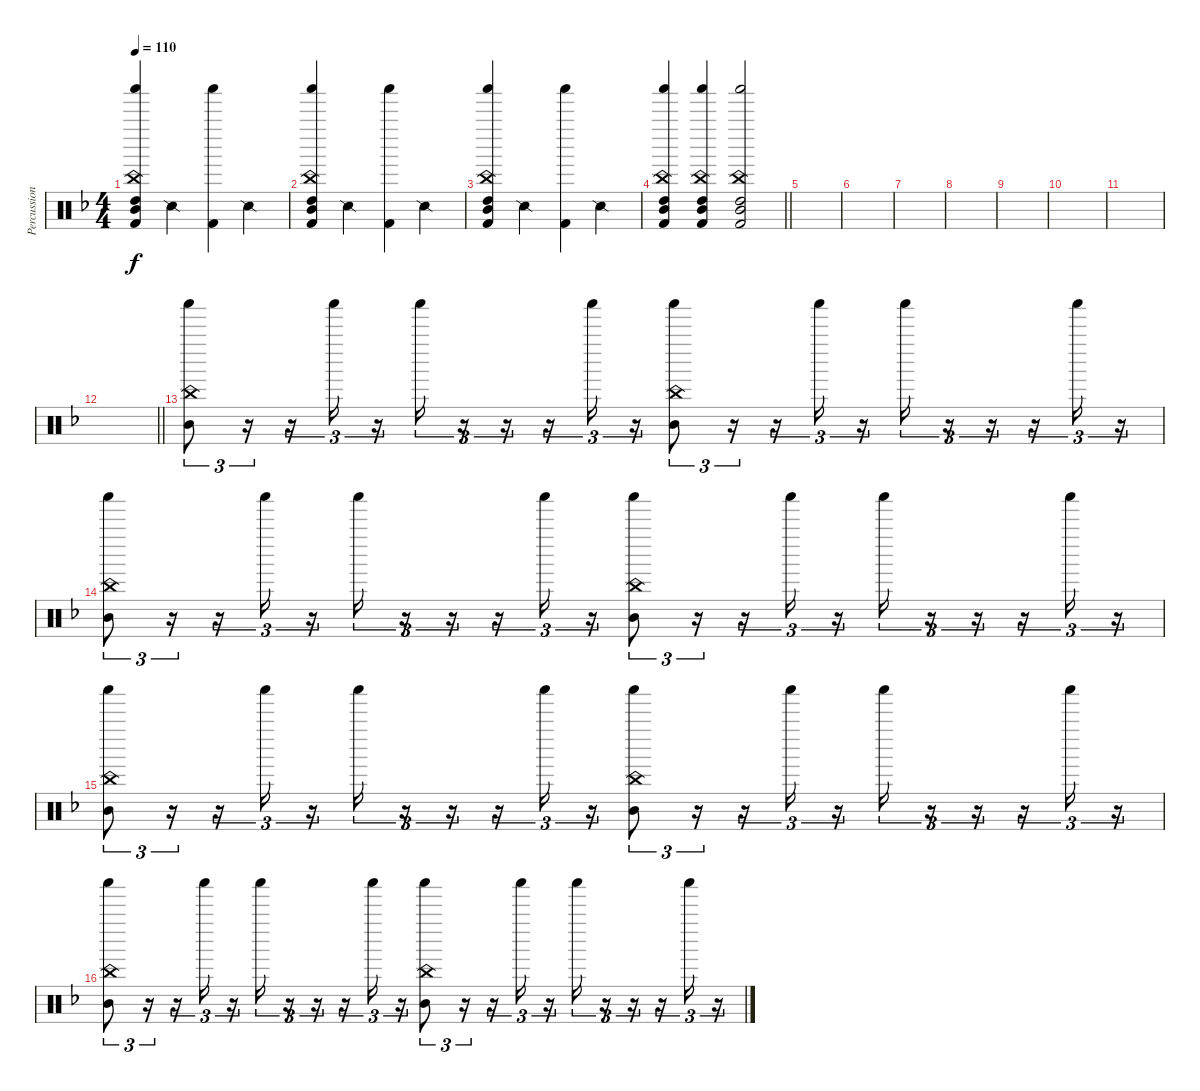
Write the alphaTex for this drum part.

\track ("Percussion" "Percussion") {instrument percussion}
\staff {score}
\articulation defaults
\ts (4 4)
\tempo 110
\clef neutral
\ks f
("Mid Tom (hit)" "China (hit)" "Shaker (hit)" "High Tom (hit)" "Kick (hit) 2").4{dy f} "Snare (side stick) 2".4 ("Shaker (hit)" "Kick (hit) 2").4 "Snare (side stick) 2".4 |
("Mid Tom (hit)" "China (hit)" "Shaker (hit)" "High Tom (hit)" "Kick (hit) 2").4 "Snare (side stick) 2".4 ("Shaker (hit)" "Kick (hit) 2").4 "Snare (side stick) 2".4 |
("Mid Tom (hit)" "China (hit)" "Shaker (hit)" "High Tom (hit)" "Kick (hit) 2").4 "Snare (side stick) 2".4 ("Shaker (hit)" "Kick (hit) 2").4 "Snare (side stick) 2".4 |
\barLineRight lightlight
("Mid Tom (hit)" "China (hit)" "Shaker (hit)" "High Tom (hit)" "Kick (hit) 2").4 ("Mid Tom (hit)" "China (hit)" "Shaker (hit)" "High Tom (hit)" "Kick (hit) 2").4 ("Mid Tom (hit)" "China (hit)" "Shaker (hit)" "High Tom (hit)" "Kick (hit) 2").2 |
\section ("" "")
|
|
|
|
|
|
|
\barLineRight lightlight
|
\section ("" "")
("Mid Tom (hit)" "China (hit)" "Shaker (hit)").8{tu (3 2)} r.16{tu (3 2)} r.16{tu (3 2)} "Shaker (hit)".16{tu (3 2)} r.16{tu (3 2)} "Shaker (hit)".16{tu (3 2)} r.16{tu (3 2)} r.16{tu (3 2)} r.16{tu (3 2)} "Shaker (hit)".16{tu (3 2)} r.16{tu (3 2)} ("Mid Tom (hit)" "China (hit)" "Shaker (hit)").8{tu (3 2)} r.16{tu (3 2)} r.16{tu (3 2)} "Shaker (hit)".16{tu (3 2)} r.16{tu (3 2)} "Shaker (hit)".16{tu (3 2)} r.16{tu (3 2)} r.16{tu (3 2)} r.16{tu (3 2)} "Shaker (hit)".16{tu (3 2)} r.16{tu (3 2)} |
("Mid Tom (hit)" "China (hit)" "Shaker (hit)").8{tu (3 2)} r.16{tu (3 2)} r.16{tu (3 2)} "Shaker (hit)".16{tu (3 2)} r.16{tu (3 2)} "Shaker (hit)".16{tu (3 2)} r.16{tu (3 2)} r.16{tu (3 2)} r.16{tu (3 2)} "Shaker (hit)".16{tu (3 2)} r.16{tu (3 2)} ("Mid Tom (hit)" "China (hit)" "Shaker (hit)").8{tu (3 2)} r.16{tu (3 2)} r.16{tu (3 2)} "Shaker (hit)".16{tu (3 2)} r.16{tu (3 2)} "Shaker (hit)".16{tu (3 2)} r.16{tu (3 2)} r.16{tu (3 2)} r.16{tu (3 2)} "Shaker (hit)".16{tu (3 2)} r.16{tu (3 2)} |
("Mid Tom (hit)" "China (hit)" "Shaker (hit)").8{tu (3 2)} r.16{tu (3 2)} r.16{tu (3 2)} "Shaker (hit)".16{tu (3 2)} r.16{tu (3 2)} "Shaker (hit)".16{tu (3 2)} r.16{tu (3 2)} r.16{tu (3 2)} r.16{tu (3 2)} "Shaker (hit)".16{tu (3 2)} r.16{tu (3 2)} ("Mid Tom (hit)" "China (hit)" "Shaker (hit)").8{tu (3 2)} r.16{tu (3 2)} r.16{tu (3 2)} "Shaker (hit)".16{tu (3 2)} r.16{tu (3 2)} "Shaker (hit)".16{tu (3 2)} r.16{tu (3 2)} r.16{tu (3 2)} r.16{tu (3 2)} "Shaker (hit)".16{tu (3 2)} r.16{tu (3 2)} |
("Mid Tom (hit)" "China (hit)" "Shaker (hit)").8{tu (3 2)} r.16{tu (3 2)} r.16{tu (3 2)} "Shaker (hit)".16{tu (3 2)} r.16{tu (3 2)} "Shaker (hit)".16{tu (3 2)} r.16{tu (3 2)} r.16{tu (3 2)} r.16{tu (3 2)} "Shaker (hit)".16{tu (3 2)} r.16{tu (3 2)} ("Mid Tom (hit)" "China (hit)" "Shaker (hit)").8{tu (3 2)} r.16{tu (3 2)} r.16{tu (3 2)} "Shaker (hit)".16{tu (3 2)} r.16{tu (3 2)} "Shaker (hit)".16{tu (3 2)} r.16{tu (3 2)} r.16{tu (3 2)} r.16{tu (3 2)} "Shaker (hit)".16{tu (3 2)} r.16{tu (3 2)}
